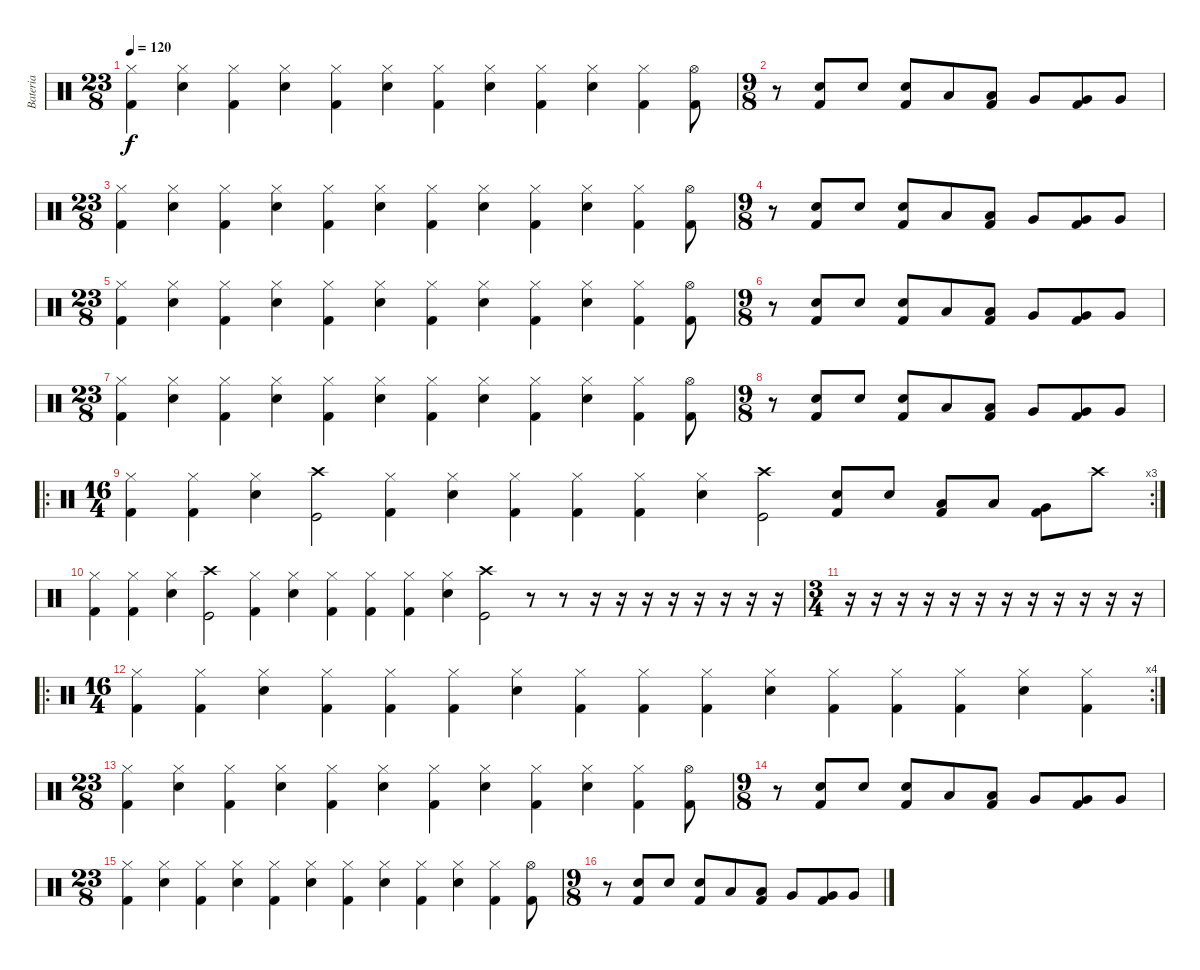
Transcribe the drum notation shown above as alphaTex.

\track ("Bateria" "Bateria") {instrument percussion}
\staff {score}
\articulation defaults
\ts (23 8)
\tempo 120
\clef neutral
\ks c
("Hi-Hat (closed)" "Kick (hit) 2").4{dy f} ("Hi-Hat (closed)" "Snare (hit) 2").4 ("Hi-Hat (closed)" "Kick (hit) 2").4 ("Hi-Hat (closed)" "Snare (hit) 2").4 ("Hi-Hat (closed)" "Kick (hit) 2").4 ("Hi-Hat (closed)" "Snare (hit) 2").4 ("Hi-Hat (closed)" "Kick (hit) 2").4 ("Hi-Hat (closed)" "Snare (hit) 2").4 ("Hi-Hat (closed)" "Kick (hit) 2").4 ("Hi-Hat (closed)" "Snare (hit) 2").4 ("Hi-Hat (closed)" "Kick (hit) 2").4 ("Kick (hit) 2" "Hi-Hat (open)").8 |
\ts (9 8)
r.8 ("Snare (hit) 2" "Kick (hit) 2").8 "Snare (hit) 2".8 ("Snare (hit) 2" "Kick (hit) 2").8 "Low Floor Tom (hit)".8 ("Low Floor Tom (hit)" "Kick (hit) 2").8 "Very Low Tom (hit)".8 ("Very Low Tom (hit)" "Kick (hit) 2").8 "Very Low Tom (hit)".8 |
\ts (23 8)
("Hi-Hat (closed)" "Kick (hit) 2").4 ("Hi-Hat (closed)" "Snare (hit) 2").4 ("Hi-Hat (closed)" "Kick (hit) 2").4 ("Hi-Hat (closed)" "Snare (hit) 2").4 ("Hi-Hat (closed)" "Kick (hit) 2").4 ("Hi-Hat (closed)" "Snare (hit) 2").4 ("Hi-Hat (closed)" "Kick (hit) 2").4 ("Hi-Hat (closed)" "Snare (hit) 2").4 ("Hi-Hat (closed)" "Kick (hit) 2").4 ("Hi-Hat (closed)" "Snare (hit) 2").4 ("Hi-Hat (closed)" "Kick (hit) 2").4 ("Kick (hit) 2" "Hi-Hat (open)").8 |
\ts (9 8)
r.8 ("Snare (hit) 2" "Kick (hit) 2").8 "Snare (hit) 2".8 ("Snare (hit) 2" "Kick (hit) 2").8 "Low Floor Tom (hit)".8 ("Low Floor Tom (hit)" "Kick (hit) 2").8 "Very Low Tom (hit)".8 ("Very Low Tom (hit)" "Kick (hit) 2").8 "Very Low Tom (hit)".8 |
\ts (23 8)
("Hi-Hat (closed)" "Kick (hit) 2").4 ("Hi-Hat (closed)" "Snare (hit) 2").4 ("Hi-Hat (closed)" "Kick (hit) 2").4 ("Hi-Hat (closed)" "Snare (hit) 2").4 ("Hi-Hat (closed)" "Kick (hit) 2").4 ("Hi-Hat (closed)" "Snare (hit) 2").4 ("Hi-Hat (closed)" "Kick (hit) 2").4 ("Hi-Hat (closed)" "Snare (hit) 2").4 ("Hi-Hat (closed)" "Kick (hit) 2").4 ("Hi-Hat (closed)" "Snare (hit) 2").4 ("Hi-Hat (closed)" "Kick (hit) 2").4 ("Kick (hit) 2" "Hi-Hat (open)").8 |
\ts (9 8)
r.8 ("Snare (hit) 2" "Kick (hit) 2").8 "Snare (hit) 2".8 ("Snare (hit) 2" "Kick (hit) 2").8 "Low Floor Tom (hit)".8 ("Low Floor Tom (hit)" "Kick (hit) 2").8 "Very Low Tom (hit)".8 ("Very Low Tom (hit)" "Kick (hit) 2").8 "Very Low Tom (hit)".8 |
\ts (23 8)
("Hi-Hat (closed)" "Kick (hit) 2").4 ("Hi-Hat (closed)" "Snare (hit) 2").4 ("Hi-Hat (closed)" "Kick (hit) 2").4 ("Hi-Hat (closed)" "Snare (hit) 2").4 ("Hi-Hat (closed)" "Kick (hit) 2").4 ("Hi-Hat (closed)" "Snare (hit) 2").4 ("Hi-Hat (closed)" "Kick (hit) 2").4 ("Hi-Hat (closed)" "Snare (hit) 2").4 ("Hi-Hat (closed)" "Kick (hit) 2").4 ("Hi-Hat (closed)" "Snare (hit) 2").4 ("Hi-Hat (closed)" "Kick (hit) 2").4 ("Kick (hit) 2" "Hi-Hat (open)").8 |
\ts (9 8)
r.8 ("Snare (hit) 2" "Kick (hit) 2").8 "Snare (hit) 2".8 ("Snare (hit) 2" "Kick (hit) 2").8 "Low Floor Tom (hit)".8 ("Low Floor Tom (hit)" "Kick (hit) 2").8 "Very Low Tom (hit)".8 ("Very Low Tom (hit)" "Kick (hit) 2").8 "Very Low Tom (hit)".8 |
\ro
\rc 3
\ts (16 4)
("Hi-Hat (closed)" "Kick (hit) 2").4 ("Hi-Hat (closed)" "Kick (hit) 2").4 ("Hi-Hat (closed)" "Snare (hit) 2").4 ("Kick (hit)" "Crash high (hit)").2 ("Hi-Hat (closed)" "Kick (hit) 2").4 ("Hi-Hat (closed)" "Snare (hit) 2").4 ("Hi-Hat (closed)" "Kick (hit) 2").4 ("Hi-Hat (closed)" "Kick (hit) 2").4 ("Hi-Hat (closed)" "Kick (hit) 2").4 ("Hi-Hat (closed)" "Snare (hit) 2").4 ("Kick (hit)" "Crash high (hit)").2 ("Kick (hit) 2" "Snare (hit) 2").8 "Snare (hit) 2".8 ("Kick (hit) 2" "Low Floor Tom (hit)").8 "Low Floor Tom (hit)".8 ("Kick (hit) 2" "Very Low Tom (hit)").8 "Crash high (hit)".8 |
("Hi-Hat (closed)" "Kick (hit) 2").4 ("Hi-Hat (closed)" "Kick (hit) 2").4 ("Hi-Hat (closed)" "Snare (hit) 2").4 ("Kick (hit)" "Crash high (hit)").2 ("Hi-Hat (closed)" "Kick (hit) 2").4 ("Hi-Hat (closed)" "Snare (hit) 2").4 ("Hi-Hat (closed)" "Kick (hit) 2").4 ("Hi-Hat (closed)" "Kick (hit) 2").4 ("Hi-Hat (closed)" "Kick (hit) 2").4 ("Hi-Hat (closed)" "Snare (hit) 2").4 ("Kick (hit)" "Crash high (hit)").2 r.8 r.8 r.16 r.16 r.16 r.16 r.16 r.16 r.16 r.16 |
\ts (3 4)
r.16 r.16 r.16 r.16 r.16 r.16 r.16 r.16 r.16 r.16 r.16 r.16 |
\ro
\rc 4
\ts (16 4)
("Hi-Hat (closed)" "Kick (hit) 2").4 ("Hi-Hat (closed)" "Kick (hit) 2").4 ("Hi-Hat (closed)" "Snare (hit) 2").4 ("Hi-Hat (closed)" "Kick (hit) 2").4 ("Hi-Hat (closed)" "Kick (hit) 2").4 ("Hi-Hat (closed)" "Kick (hit) 2").4 ("Hi-Hat (closed)" "Snare (hit) 2").4 ("Hi-Hat (closed)" "Kick (hit) 2").4 ("Hi-Hat (closed)" "Kick (hit) 2").4 ("Hi-Hat (closed)" "Kick (hit) 2").4 ("Hi-Hat (closed)" "Snare (hit) 2").4 ("Hi-Hat (closed)" "Kick (hit) 2").4 ("Hi-Hat (closed)" "Kick (hit) 2").4 ("Hi-Hat (closed)" "Kick (hit) 2").4 ("Hi-Hat (closed)" "Snare (hit) 2").4 ("Hi-Hat (closed)" "Kick (hit) 2").4 |
\ts (23 8)
("Hi-Hat (closed)" "Kick (hit) 2").4 ("Hi-Hat (closed)" "Snare (hit) 2").4 ("Hi-Hat (closed)" "Kick (hit) 2").4 ("Hi-Hat (closed)" "Snare (hit) 2").4 ("Hi-Hat (closed)" "Kick (hit) 2").4 ("Hi-Hat (closed)" "Snare (hit) 2").4 ("Hi-Hat (closed)" "Kick (hit) 2").4 ("Hi-Hat (closed)" "Snare (hit) 2").4 ("Hi-Hat (closed)" "Kick (hit) 2").4 ("Hi-Hat (closed)" "Snare (hit) 2").4 ("Hi-Hat (closed)" "Kick (hit) 2").4 ("Kick (hit) 2" "Hi-Hat (open)").8 |
\ts (9 8)
r.8 ("Snare (hit) 2" "Kick (hit) 2").8 "Snare (hit) 2".8 ("Snare (hit) 2" "Kick (hit) 2").8 "Low Floor Tom (hit)".8 ("Low Floor Tom (hit)" "Kick (hit) 2").8 "Very Low Tom (hit)".8 ("Very Low Tom (hit)" "Kick (hit) 2").8 "Very Low Tom (hit)".8 |
\ts (23 8)
("Hi-Hat (closed)" "Kick (hit) 2").4 ("Hi-Hat (closed)" "Snare (hit) 2").4 ("Hi-Hat (closed)" "Kick (hit) 2").4 ("Hi-Hat (closed)" "Snare (hit) 2").4 ("Hi-Hat (closed)" "Kick (hit) 2").4 ("Hi-Hat (closed)" "Snare (hit) 2").4 ("Hi-Hat (closed)" "Kick (hit) 2").4 ("Hi-Hat (closed)" "Snare (hit) 2").4 ("Hi-Hat (closed)" "Kick (hit) 2").4 ("Hi-Hat (closed)" "Snare (hit) 2").4 ("Hi-Hat (closed)" "Kick (hit) 2").4 ("Kick (hit) 2" "Hi-Hat (open)").8 |
\ts (9 8)
r.8 ("Snare (hit) 2" "Kick (hit) 2").8 "Snare (hit) 2".8 ("Snare (hit) 2" "Kick (hit) 2").8 "Low Floor Tom (hit)".8 ("Low Floor Tom (hit)" "Kick (hit) 2").8 "Very Low Tom (hit)".8 ("Very Low Tom (hit)" "Kick (hit) 2").8 "Very Low Tom (hit)".8
